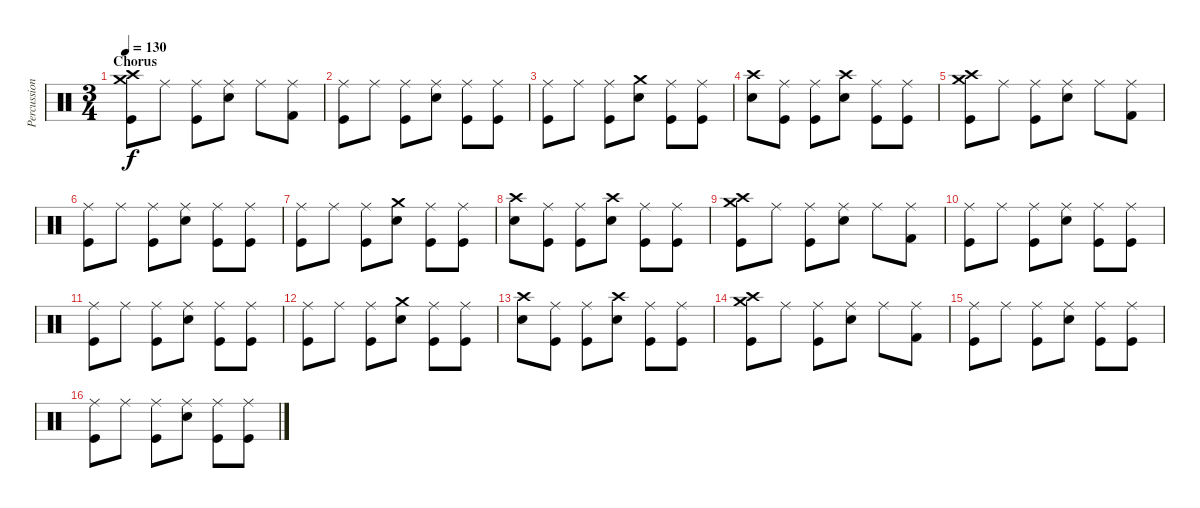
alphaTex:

\track ("Percussion" "Percussion") {instrument percussion}
\staff {score}
\articulation defaults
\ts (3 4)
\section ("" "Chorus")
\tempo 130
\clef neutral
\ks c
("Crash medium (hit)" "Crash high (hit)" "Kick (hit)").8{dy f volume 10} "Ride (middle)".8 ("Ride (middle)" "Kick (hit)").8 ("Ride (middle)" "Snare (hit) 2").8 "Ride (middle)".8 ("Ride (middle)" "Kick (hit) 2").8 |
("Ride (middle)" "Kick (hit)").8 "Ride (middle)".8 ("Ride (middle)" "Kick (hit)").8 ("Ride (middle)" "Snare (hit) 2").8 ("Ride (middle)" "Kick (hit)").8 ("Ride (middle)" "Kick (hit)").8 |
("Ride (middle)" "Kick (hit)").8 "Ride (middle)".8 ("Ride (middle)" "Kick (hit)").8 ("Crash medium (hit)" "Snare (hit) 2").8 ("Ride (middle)" "Kick (hit)").8 ("Ride (middle)" "Kick (hit)").8 |
("Crash high (hit)" "Snare (hit) 2").8 ("Ride (middle)" "Kick (hit)").8 ("Ride (middle)" "Kick (hit)").8 ("Crash high (hit)" "Snare (hit) 2").8 ("Ride (middle)" "Kick (hit)").8 ("Ride (middle)" "Kick (hit)").8 |
("Crash medium (hit)" "Crash high (hit)" "Kick (hit)").8 "Ride (middle)".8 ("Ride (middle)" "Kick (hit)").8 ("Ride (middle)" "Snare (hit) 2").8 "Ride (middle)".8 ("Ride (middle)" "Kick (hit) 2").8 |
("Ride (middle)" "Kick (hit)").8 "Ride (middle)".8 ("Ride (middle)" "Kick (hit)").8 ("Ride (middle)" "Snare (hit) 2").8 ("Ride (middle)" "Kick (hit)").8 ("Ride (middle)" "Kick (hit)").8 |
("Ride (middle)" "Kick (hit)").8 "Ride (middle)".8 ("Ride (middle)" "Kick (hit)").8 ("Crash medium (hit)" "Snare (hit) 2").8 ("Ride (middle)" "Kick (hit)").8 ("Ride (middle)" "Kick (hit)").8 |
("Crash high (hit)" "Snare (hit) 2").8 ("Ride (middle)" "Kick (hit)").8 ("Ride (middle)" "Kick (hit)").8 ("Crash high (hit)" "Snare (hit) 2").8 ("Ride (middle)" "Kick (hit)").8 ("Ride (middle)" "Kick (hit)").8 |
("Crash medium (hit)" "Crash high (hit)" "Kick (hit)").8 "Ride (middle)".8 ("Ride (middle)" "Kick (hit)").8 ("Ride (middle)" "Snare (hit) 2").8 "Ride (middle)".8 ("Ride (middle)" "Kick (hit) 2").8 |
("Ride (middle)" "Kick (hit)").8 "Ride (middle)".8 ("Ride (middle)" "Kick (hit)").8 ("Ride (middle)" "Snare (hit) 2").8 ("Ride (middle)" "Kick (hit)").8 ("Ride (middle)" "Kick (hit)").8 |
("Ride (middle)" "Kick (hit)").8 "Ride (middle)".8 ("Ride (middle)" "Kick (hit)").8 ("Ride (middle)" "Snare (hit) 2").8 ("Ride (middle)" "Kick (hit)").8 ("Ride (middle)" "Kick (hit)").8 |
("Ride (middle)" "Kick (hit)").8 "Ride (middle)".8 ("Ride (middle)" "Kick (hit)").8 ("Crash medium (hit)" "Snare (hit) 2").8 ("Ride (middle)" "Kick (hit)").8 ("Ride (middle)" "Kick (hit)").8 |
("Crash high (hit)" "Snare (hit) 2").8 ("Ride (middle)" "Kick (hit)").8 ("Ride (middle)" "Kick (hit)").8 ("Crash high (hit)" "Snare (hit) 2").8 ("Ride (middle)" "Kick (hit)").8 ("Ride (middle)" "Kick (hit)").8 |
("Crash medium (hit)" "Crash high (hit)" "Kick (hit)").8 "Ride (middle)".8 ("Ride (middle)" "Kick (hit)").8 ("Ride (middle)" "Snare (hit) 2").8 "Ride (middle)".8 ("Ride (middle)" "Kick (hit) 2").8 |
("Ride (middle)" "Kick (hit)").8 "Ride (middle)".8 ("Ride (middle)" "Kick (hit)").8 ("Ride (middle)" "Snare (hit) 2").8 ("Ride (middle)" "Kick (hit)").8 ("Ride (middle)" "Kick (hit)").8 |
("Ride (middle)" "Kick (hit)").8 "Ride (middle)".8 ("Ride (middle)" "Kick (hit)").8 ("Ride (middle)" "Snare (hit) 2").8 ("Ride (middle)" "Kick (hit)").8 ("Ride (middle)" "Kick (hit)").8
